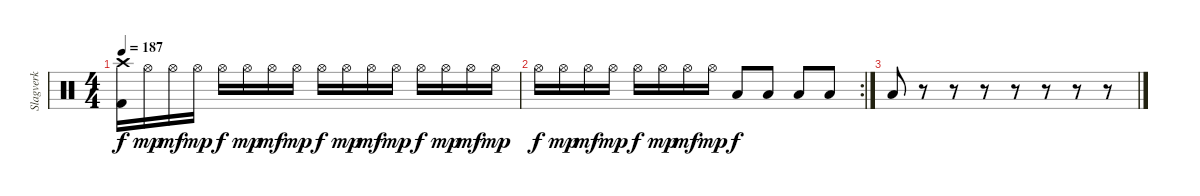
\track ("Slagverk" "Slagverk") {instrument percussion}
\staff {score}
\articulation defaults
\ts (4 4)
\tempo 187
\clef neutral
\ks c
("Crash high (hit)" "Kick (hit) 2").16{dy f} "Hi-Hat (open)".16{dy mp} "Hi-Hat (open)".16{dy mf} "Hi-Hat (open)".16{dy mp} "Hi-Hat (open)".16{dy f} "Hi-Hat (open)".16{dy mp} "Hi-Hat (open)".16{dy mf} "Hi-Hat (open)".16{dy mp} "Hi-Hat (open)".16{dy f} "Hi-Hat (open)".16{dy mp} "Hi-Hat (open)".16{dy mf} "Hi-Hat (open)".16{dy mp} "Hi-Hat (open)".16{dy f} "Hi-Hat (open)".16{dy mp} "Hi-Hat (open)".16{dy mf} "Hi-Hat (open)".16{dy mp} |
\rc 2 "Hi-Hat (open)".16{dy f} "Hi-Hat (open)".16{dy mp} "Hi-Hat (open)".16{dy mf} "Hi-Hat (open)".16{dy mp} "Hi-Hat (open)".16{dy f} "Hi-Hat (open)".16{dy mp} "Hi-Hat (open)".16{dy mf} "Hi-Hat (open)".16{dy mp} "Low Floor Tom (hit)".8{dy f} "Low Floor Tom (hit)".8 "Low Floor Tom (hit)".8 "Low Floor Tom (hit)".8
|
"Low Floor Tom (hit)".8 r.8 r.8 r.8 r.8 r.8 r.8 r.8
